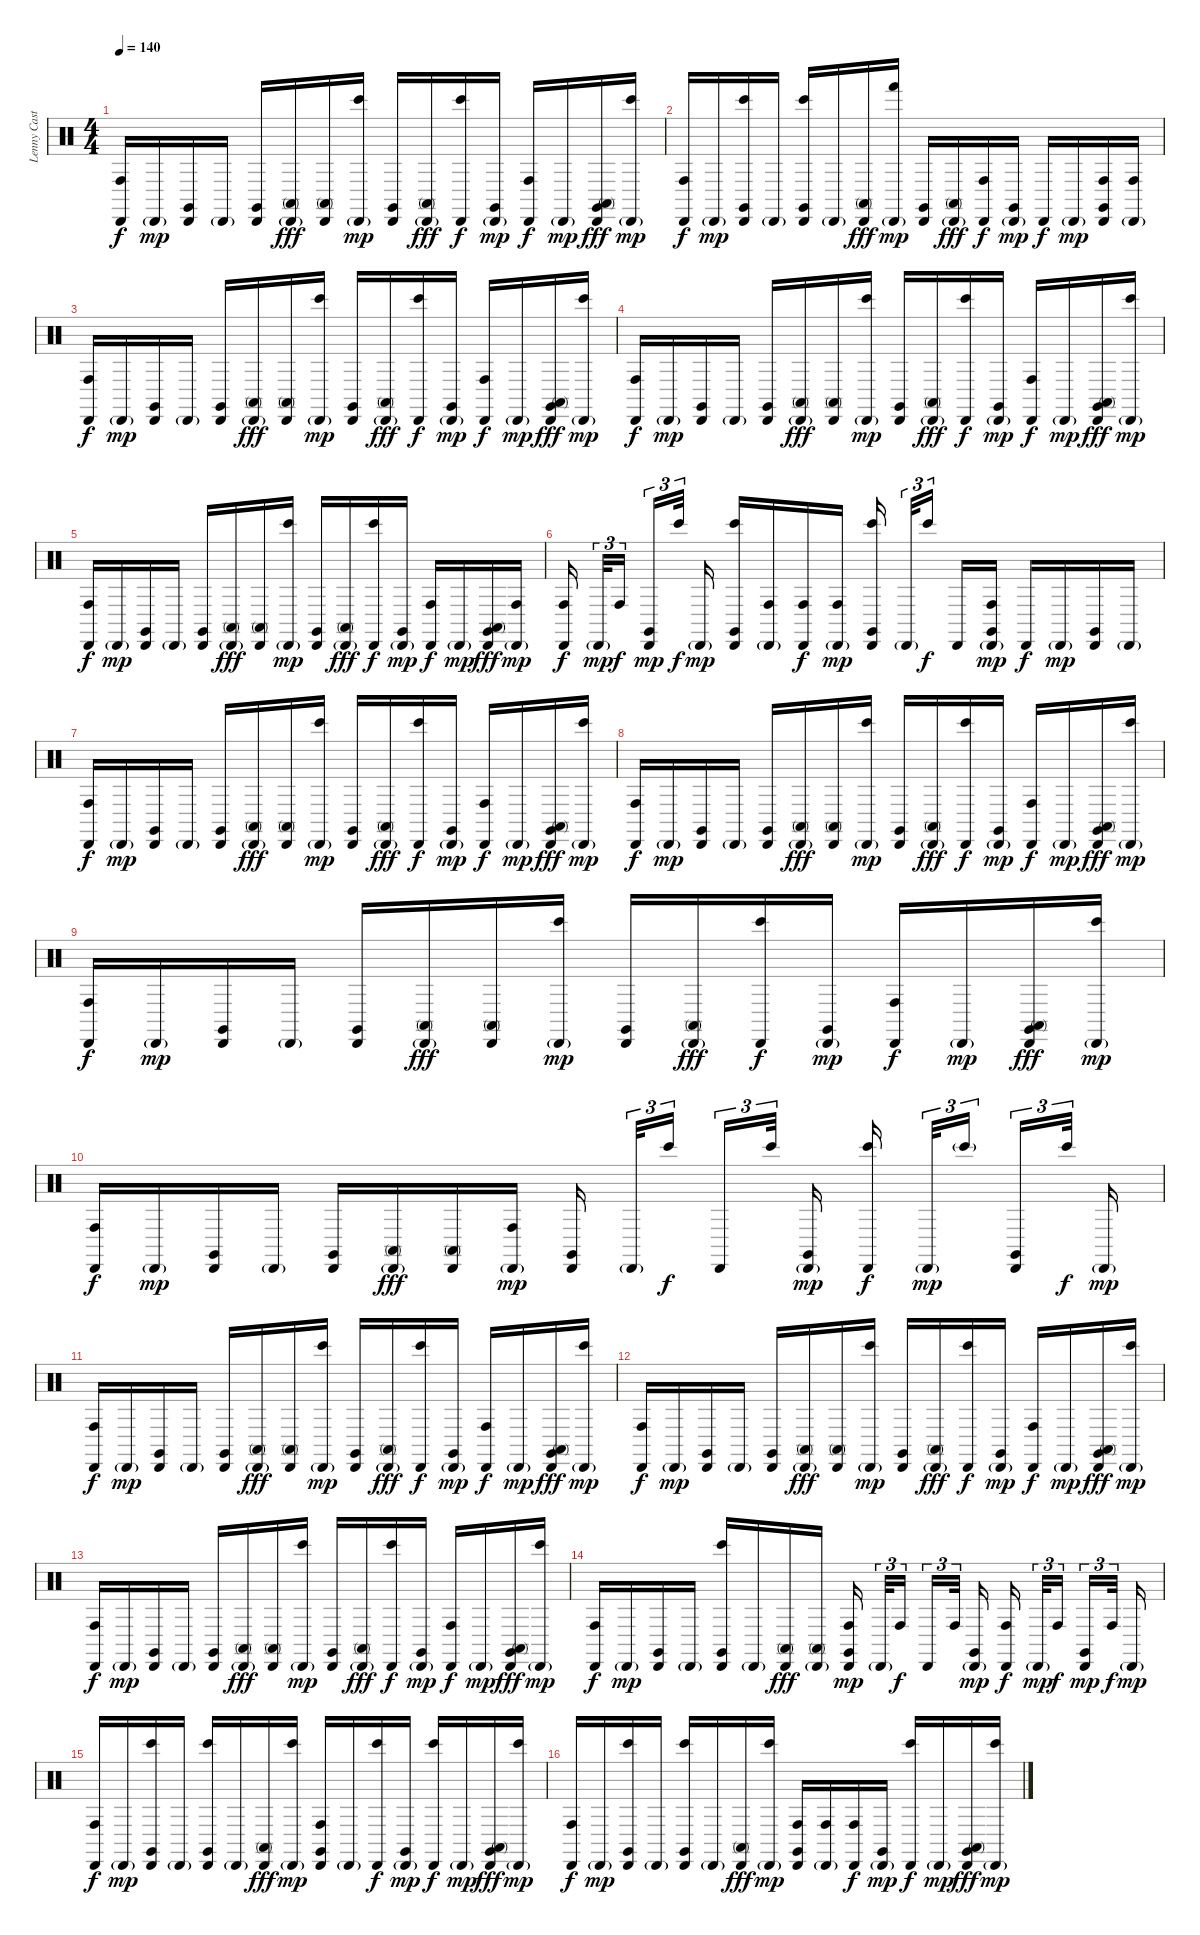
\track ("Lenny Castro - Percussion" "Lenny Cast") {instrument percussion}
\staff {score}
\articulation defaults
\ts (4 4)
\tempo 140
\clef neutral
\ks c
("Cabasa (hit)" "Conga high (hit)").16{dy f} "Cabasa (hit)"{g}.16{dy mp} ("Claves (hit)" "Cabasa (hit)").16 "Cabasa (hit)"{g}.16 ("Claves (hit)" "Cabasa (hit)").16 ("Cabasa (hit)"{g} "Conga high (mute)").16{dy fff} ("Cabasa (hit)" "Conga high (mute)").16 ("Cabasa (hit)"{g} "Bongo High (hit)").16{dy mp} ("Claves (hit)" "Cabasa (hit)").16 ("Cabasa (hit)"{g} "Conga high (mute)").16{dy fff} ("Cabasa (hit)" "Bongo High (hit)").16{dy f} ("Claves (hit)" "Cabasa (hit)"{g}).16{dy mp} ("Cabasa (hit)" "Conga high (hit)").16{dy f} "Cabasa (hit)"{g}.16{dy mp} ("Claves (hit)" "Cabasa (hit)" "Conga high (mute)").16{dy fff} ("Cabasa (hit)"{g} "Bongo High (hit)").16{dy mp} |
("Cabasa (hit)" "Conga high (hit)").16{dy f} "Cabasa (hit)"{g}.16{dy mp} ("Claves (hit)" "Cabasa (hit)" "Bongo High (hit)").16 "Cabasa (hit)"{g}.16 ("Claves (hit)" "Cabasa (hit)" "Bongo High (hit)").16 "Cabasa (hit)"{g}.16 ("Cabasa (hit)" "Conga high (mute)").16{dy fff} ("Cabasa (hit)"{g} "Hand (hit)").16{dy mp} ("Claves (hit)" "Cabasa (hit)").16 ("Cabasa (hit)"{g} "Conga high (mute)").16{dy fff} ("Cabasa (hit)" "Conga high (hit)").16{dy f} ("Claves (hit)" "Cabasa (hit)"{g}).16{dy mp} "Cabasa (hit)".16{dy f} "Cabasa (hit)"{g}.16{dy mp} ("Claves (hit)" "Cabasa (hit)" "Conga high (hit)").16 ("Cabasa (hit)"{g} "Conga high (hit)").16 |
("Cabasa (hit)" "Conga high (hit)").16{dy f} "Cabasa (hit)"{g}.16{dy mp} ("Claves (hit)" "Cabasa (hit)").16 "Cabasa (hit)"{g}.16 ("Claves (hit)" "Cabasa (hit)").16 ("Cabasa (hit)"{g} "Conga high (mute)").16{dy fff} ("Cabasa (hit)" "Conga high (mute)").16 ("Cabasa (hit)"{g} "Bongo High (hit)").16{dy mp} ("Claves (hit)" "Cabasa (hit)").16 ("Cabasa (hit)"{g} "Conga high (mute)").16{dy fff} ("Cabasa (hit)" "Bongo High (hit)").16{dy f} ("Claves (hit)" "Cabasa (hit)"{g}).16{dy mp} ("Cabasa (hit)" "Conga high (hit)").16{dy f} "Cabasa (hit)"{g}.16{dy mp} ("Claves (hit)" "Cabasa (hit)" "Conga high (mute)").16{dy fff} ("Cabasa (hit)"{g} "Bongo High (hit)").16{dy mp} |
("Cabasa (hit)" "Conga high (hit)").16{dy f} "Cabasa (hit)"{g}.16{dy mp} ("Claves (hit)" "Cabasa (hit)").16 "Cabasa (hit)"{g}.16 ("Claves (hit)" "Cabasa (hit)").16 ("Cabasa (hit)"{g} "Conga high (mute)").16{dy fff} ("Cabasa (hit)" "Conga high (mute)").16 ("Cabasa (hit)"{g} "Bongo High (hit)").16{dy mp} ("Claves (hit)" "Cabasa (hit)").16 ("Cabasa (hit)"{g} "Conga high (mute)").16{dy fff} ("Cabasa (hit)" "Bongo High (hit)").16{dy f} ("Claves (hit)" "Cabasa (hit)"{g}).16{dy mp} ("Cabasa (hit)" "Conga high (hit)").16{dy f} "Cabasa (hit)"{g}.16{dy mp} ("Claves (hit)" "Cabasa (hit)" "Conga high (mute)").16{dy fff} ("Cabasa (hit)"{g} "Bongo High (hit)").16{dy mp} |
("Cabasa (hit)" "Conga high (hit)").16{dy f} "Cabasa (hit)"{g}.16{dy mp} ("Claves (hit)" "Cabasa (hit)").16 "Cabasa (hit)"{g}.16 ("Claves (hit)" "Cabasa (hit)").16 ("Cabasa (hit)"{g} "Conga high (mute)").16{dy fff} ("Cabasa (hit)" "Conga high (mute)").16 ("Cabasa (hit)"{g} "Bongo High (hit)").16{dy mp} ("Claves (hit)" "Cabasa (hit)").16 ("Cabasa (hit)"{g} "Conga high (mute)").16{dy fff} ("Cabasa (hit)" "Bongo High (hit)").16{dy f} ("Claves (hit)" "Cabasa (hit)"{g}).16{dy mp} ("Cabasa (hit)" "Conga high (hit)").16{dy f} "Cabasa (hit)"{g}.16{dy mp} ("Claves (hit)" "Cabasa (hit)" "Conga high (mute)").16{dy fff} ("Cabasa (hit)"{g} "Conga high (hit)").16{dy mp} |
("Cabasa (hit)" "Conga high (hit)").16{dy f beam splitsecondary} "Cabasa (hit)"{g}.32{tu (3 2) dy mp} "Conga high (hit)".16{tu (3 2) dy f beam splitsecondary} ("Claves (hit)" "Cabasa (hit)").16{tu (3 2) dy mp} "Bongo High (hit)".32{tu (3 2) dy f beam splitsecondary} "Cabasa (hit)"{g}.16{dy mp} ("Claves (hit)" "Cabasa (hit)" "Bongo High (hit)").16 ("Cabasa (hit)"{g} "Conga high (hit)").16 ("Cabasa (hit)" "Conga high (hit)").16{dy f} ("Cabasa (hit)"{g} "Conga high (hit)").16{dy mp} ("Claves (hit)" "Cabasa (hit)" "Bongo High (hit)").16{beam splitsecondary} "Cabasa (hit)"{g}.32{tu (3 2)} "Bongo High (hit)".16{tu (3 2) dy f beam splitsecondary} "Cabasa (hit)".16 ("Claves (hit)" "Cabasa (hit)"{g} "Conga high (hit)").16{dy mp} "Cabasa (hit)".16{dy f} "Cabasa (hit)"{g}.16{dy mp} ("Claves (hit)" "Cabasa (hit)").16 "Cabasa (hit)"{g}.16 |
("Cabasa (hit)" "Conga high (hit)").16{dy f} "Cabasa (hit)"{g}.16{dy mp} ("Claves (hit)" "Cabasa (hit)").16 "Cabasa (hit)"{g}.16 ("Claves (hit)" "Cabasa (hit)").16 ("Cabasa (hit)"{g} "Conga high (mute)").16{dy fff} ("Cabasa (hit)" "Conga high (mute)").16 ("Cabasa (hit)"{g} "Bongo High (hit)").16{dy mp} ("Claves (hit)" "Cabasa (hit)").16 ("Cabasa (hit)"{g} "Conga high (mute)").16{dy fff} ("Cabasa (hit)" "Bongo High (hit)").16{dy f} ("Claves (hit)" "Cabasa (hit)"{g}).16{dy mp} ("Cabasa (hit)" "Conga high (hit)").16{dy f} "Cabasa (hit)"{g}.16{dy mp} ("Claves (hit)" "Cabasa (hit)" "Conga high (mute)").16{dy fff} ("Cabasa (hit)"{g} "Bongo High (hit)").16{dy mp} |
("Cabasa (hit)" "Conga high (hit)").16{dy f} "Cabasa (hit)"{g}.16{dy mp} ("Claves (hit)" "Cabasa (hit)").16 "Cabasa (hit)"{g}.16 ("Claves (hit)" "Cabasa (hit)").16 ("Cabasa (hit)"{g} "Conga high (mute)").16{dy fff} ("Cabasa (hit)" "Conga high (mute)").16 ("Cabasa (hit)"{g} "Bongo High (hit)").16{dy mp} ("Claves (hit)" "Cabasa (hit)").16 ("Cabasa (hit)"{g} "Conga high (mute)").16{dy fff} ("Cabasa (hit)" "Bongo High (hit)").16{dy f} ("Claves (hit)" "Cabasa (hit)"{g}).16{dy mp} ("Cabasa (hit)" "Conga high (hit)").16{dy f} "Cabasa (hit)"{g}.16{dy mp} ("Claves (hit)" "Cabasa (hit)" "Conga high (mute)").16{dy fff} ("Cabasa (hit)"{g} "Bongo High (hit)").16{dy mp} |
("Cabasa (hit)" "Conga high (hit)").16{dy f} "Cabasa (hit)"{g}.16{dy mp} ("Claves (hit)" "Cabasa (hit)").16 "Cabasa (hit)"{g}.16 ("Claves (hit)" "Cabasa (hit)").16 ("Cabasa (hit)"{g} "Conga high (mute)").16{dy fff} ("Cabasa (hit)" "Conga high (mute)").16 ("Cabasa (hit)"{g} "Bongo High (hit)").16{dy mp} ("Claves (hit)" "Cabasa (hit)").16 ("Cabasa (hit)"{g} "Conga high (mute)").16{dy fff} ("Cabasa (hit)" "Bongo High (hit)").16{dy f} ("Claves (hit)" "Cabasa (hit)"{g}).16{dy mp} ("Cabasa (hit)" "Conga high (hit)").16{dy f} "Cabasa (hit)"{g}.16{dy mp} ("Claves (hit)" "Cabasa (hit)" "Conga high (mute)").16{dy fff} ("Cabasa (hit)"{g} "Bongo High (hit)").16{dy mp} |
("Cabasa (hit)" "Conga high (hit)").16{dy f} "Cabasa (hit)"{g}.16{dy mp} ("Claves (hit)" "Cabasa (hit)").16 "Cabasa (hit)"{g}.16 ("Claves (hit)" "Cabasa (hit)").16 ("Cabasa (hit)"{g} "Conga high (mute)").16{dy fff} ("Cabasa (hit)" "Conga high (mute)").16 ("Cabasa (hit)"{g} "Conga high (hit)").16{dy mp} ("Claves (hit)" "Cabasa (hit)").16{beam splitsecondary} "Cabasa (hit)"{g}.32{tu (3 2)} "Bongo High (hit)".16{tu (3 2) dy f beam splitsecondary} "Cabasa (hit)".16{tu (3 2)} "Bongo High (hit)".32{tu (3 2) beam splitsecondary} ("Claves (hit)" "Cabasa (hit)"{g}).16{dy mp} ("Cabasa (hit)" "Bongo High (hit)").16{dy f beam splitsecondary} "Cabasa (hit)"{g}.32{tu (3 2) dy mp} "Bongo High (hit)"{g}.16{tu (3 2) beam splitsecondary} ("Claves (hit)" "Cabasa (hit)").16{tu (3 2)} "Bongo High (hit)".32{tu (3 2) dy f beam splitsecondary} "Cabasa (hit)"{g}.16{dy mp} |
("Cabasa (hit)" "Conga high (hit)").16{dy f} "Cabasa (hit)"{g}.16{dy mp} ("Claves (hit)" "Cabasa (hit)").16 "Cabasa (hit)"{g}.16 ("Claves (hit)" "Cabasa (hit)").16 ("Cabasa (hit)"{g} "Conga high (mute)").16{dy fff} ("Cabasa (hit)" "Conga high (mute)").16 ("Cabasa (hit)"{g} "Bongo High (hit)").16{dy mp} ("Claves (hit)" "Cabasa (hit)").16 ("Cabasa (hit)"{g} "Conga high (mute)").16{dy fff} ("Cabasa (hit)" "Bongo High (hit)").16{dy f} ("Claves (hit)" "Cabasa (hit)"{g}).16{dy mp} ("Cabasa (hit)" "Conga high (hit)").16{dy f} "Cabasa (hit)"{g}.16{dy mp} ("Claves (hit)" "Cabasa (hit)" "Conga high (mute)").16{dy fff} ("Cabasa (hit)"{g} "Bongo High (hit)").16{dy mp} |
("Cabasa (hit)" "Conga high (hit)").16{dy f} "Cabasa (hit)"{g}.16{dy mp} ("Claves (hit)" "Cabasa (hit)").16 "Cabasa (hit)"{g}.16 ("Claves (hit)" "Cabasa (hit)").16 ("Cabasa (hit)"{g} "Conga high (mute)").16{dy fff} ("Cabasa (hit)" "Conga high (mute)").16 ("Cabasa (hit)"{g} "Bongo High (hit)").16{dy mp} ("Claves (hit)" "Cabasa (hit)").16 ("Cabasa (hit)"{g} "Conga high (mute)").16{dy fff} ("Cabasa (hit)" "Bongo High (hit)").16{dy f} ("Claves (hit)" "Cabasa (hit)"{g}).16{dy mp} ("Cabasa (hit)" "Conga high (hit)").16{dy f} "Cabasa (hit)"{g}.16{dy mp} ("Claves (hit)" "Cabasa (hit)" "Conga high (mute)").16{dy fff} ("Cabasa (hit)"{g} "Bongo High (hit)").16{dy mp} |
("Cabasa (hit)" "Conga high (hit)").16{dy f} "Cabasa (hit)"{g}.16{dy mp} ("Claves (hit)" "Cabasa (hit)").16 "Cabasa (hit)"{g}.16 ("Claves (hit)" "Cabasa (hit)").16 ("Cabasa (hit)"{g} "Conga high (mute)").16{dy fff} ("Cabasa (hit)" "Conga high (mute)").16 ("Cabasa (hit)"{g} "Bongo High (hit)").16{dy mp} ("Claves (hit)" "Cabasa (hit)").16 ("Cabasa (hit)"{g} "Conga high (mute)").16{dy fff} ("Cabasa (hit)" "Bongo High (hit)").16{dy f} ("Claves (hit)" "Cabasa (hit)"{g}).16{dy mp} ("Cabasa (hit)" "Conga high (hit)").16{dy f} "Cabasa (hit)"{g}.16{dy mp} ("Claves (hit)" "Cabasa (hit)" "Conga high (mute)").16{dy fff} ("Cabasa (hit)"{g} "Bongo High (hit)").16{dy mp} |
("Cabasa (hit)" "Conga high (hit)").16{dy f} "Cabasa (hit)"{g}.16{dy mp} ("Claves (hit)" "Cabasa (hit)").16 "Cabasa (hit)"{g}.16 ("Claves (hit)" "Cabasa (hit)" "Bongo High (hit)").16 "Cabasa (hit)"{g}.16 ("Cabasa (hit)" "Conga high (mute)").16{dy fff} ("Cabasa (hit)"{g} "Conga high (mute)").16 ("Claves (hit)" "Cabasa (hit)" "Conga high (hit)").16{dy mp beam splitsecondary} "Cabasa (hit)"{g}.32{tu (3 2)} "Conga high (hit)".16{tu (3 2) dy f beam splitsecondary} "Cabasa (hit)".16{tu (3 2)} "Conga high (hit)".32{tu (3 2) beam splitsecondary} ("Claves (hit)" "Cabasa (hit)"{g}).16{dy mp} ("Cabasa (hit)" "Conga high (hit)").16{dy f beam splitsecondary} "Cabasa (hit)"{g}.32{tu (3 2) dy mp} "Conga high (hit)".16{tu (3 2) dy f beam splitsecondary} ("Claves (hit)" "Cabasa (hit)").16{tu (3 2) dy mp} "Conga high (hit)".32{tu (3 2) dy f beam splitsecondary} "Cabasa (hit)"{g}.16{dy mp} |
("Cabasa (hit)" "Conga high (hit)").16{dy f} "Cabasa (hit)"{g}.16{dy mp} ("Claves (hit)" "Cabasa (hit)" "Bongo High (hit)").16 "Cabasa (hit)"{g}.16 ("Claves (hit)" "Cabasa (hit)" "Bongo High (hit)").16 "Cabasa (hit)"{g}.16 ("Cabasa (hit)" "Conga high (mute)").16{dy fff} ("Cabasa (hit)"{g} "Bongo High (hit)").16{dy mp} ("Claves (hit)" "Cabasa (hit)" "Conga high (hit)").16 "Cabasa (hit)"{g}.16 ("Cabasa (hit)" "Bongo High (hit)").16{dy f} ("Claves (hit)" "Cabasa (hit)"{g}).16{dy mp} ("Cabasa (hit)" "Bongo High (hit)").16{dy f} "Cabasa (hit)"{g}.16{dy mp} ("Claves (hit)" "Cabasa (hit)" "Conga high (mute)").16{dy fff} ("Cabasa (hit)"{g} "Bongo High (hit)").16{dy mp} |
("Cabasa (hit)" "Conga high (hit)").16{dy f} "Cabasa (hit)"{g}.16{dy mp} ("Claves (hit)" "Cabasa (hit)" "Bongo High (hit)").16 "Cabasa (hit)"{g}.16 ("Claves (hit)" "Cabasa (hit)" "Bongo High (hit)").16 "Cabasa (hit)"{g}.16 ("Cabasa (hit)" "Conga high (mute)").16{dy fff} ("Cabasa (hit)"{g} "Bongo High (hit)").16{dy mp} ("Claves (hit)" "Cabasa (hit)" "Conga high (hit)").16 ("Cabasa (hit)"{g} "Conga high (hit)").16 ("Cabasa (hit)" "Conga high (hit)").16{dy f} ("Claves (hit)" "Cabasa (hit)"{g}).16{dy mp} ("Cabasa (hit)" "Bongo High (hit)").16{dy f} "Cabasa (hit)"{g}.16{dy mp} ("Claves (hit)" "Cabasa (hit)" "Conga high (mute)").16{dy fff} ("Cabasa (hit)"{g} "Bongo High (hit)").16{dy mp}
